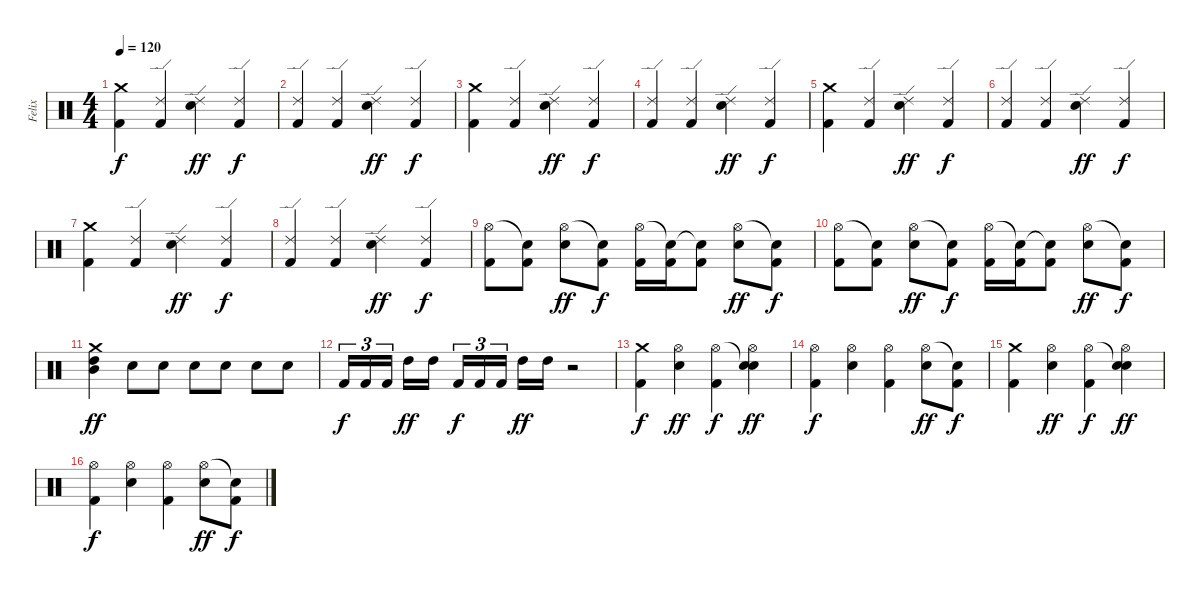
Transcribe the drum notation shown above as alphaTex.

\track ("Felix" "Felix") {instrument percussion}
\staff {score}
\articulation defaults
\ts (4 4)
\tempo 120
\clef neutral
\ks c
("Crash medium (hit)" "Kick (hit) 2").4{dy f} ("Ride (edge) 2" "Kick (hit) 2").4 ("Ride (edge) 2" "Electric Snare (hit)").4{dy ff} ("Ride (edge) 2" "Kick (hit) 2").4{dy f} |
("Ride (edge) 2" "Kick (hit) 2").4 ("Ride (edge) 2" "Kick (hit) 2").4 ("Ride (edge) 2" "Electric Snare (hit)").4{dy ff} ("Ride (edge) 2" "Kick (hit) 2").4{dy f} |
("Crash medium (hit)" "Kick (hit) 2").4 ("Ride (edge) 2" "Kick (hit) 2").4 ("Ride (edge) 2" "Electric Snare (hit)").4{dy ff} ("Ride (edge) 2" "Kick (hit) 2").4{dy f} |
("Ride (edge) 2" "Kick (hit) 2").4 ("Ride (edge) 2" "Kick (hit) 2").4 ("Ride (edge) 2" "Electric Snare (hit)").4{dy ff} ("Ride (edge) 2" "Kick (hit) 2").4{dy f} |
("Crash medium (hit)" "Kick (hit) 2").4 ("Ride (edge) 2" "Kick (hit) 2").4 ("Ride (edge) 2" "Electric Snare (hit)").4{dy ff} ("Ride (edge) 2" "Kick (hit) 2").4{dy f} |
("Ride (edge) 2" "Kick (hit) 2").4 ("Ride (edge) 2" "Kick (hit) 2").4 ("Ride (edge) 2" "Electric Snare (hit)").4{dy ff} ("Ride (edge) 2" "Kick (hit) 2").4{dy f} |
("Crash medium (hit)" "Kick (hit) 2").4 ("Ride (edge) 2" "Kick (hit) 2").4 ("Ride (edge) 2" "Electric Snare (hit)").4{dy ff} ("Ride (edge) 2" "Kick (hit) 2").4{dy f} |
("Ride (edge) 2" "Kick (hit) 2").4 ("Ride (edge) 2" "Kick (hit) 2").4 ("Ride (edge) 2" "Electric Snare (hit)").4{dy ff} ("Ride (edge) 2" "Kick (hit) 2").4{dy f} |
("Hi-Hat (open)" "Kick (hit) 2").8 ("Snare (hit)"{t} "Kick (hit) 2").8 ("Hi-Hat (open)" "Electric Snare (hit)").8{dy ff} ("Snare (hit)"{t} "Kick (hit) 2").8{dy f} ("Hi-Hat (open)" "Kick (hit) 2").16 ("Snare (hit)"{t} "Kick (hit) 2").16 ("Snare (hit)"{t} "Kick (hit) 2").8 ("Hi-Hat (open)" "Electric Snare (hit)").8{dy ff} ("Snare (hit)"{t} "Kick (hit) 2").8{dy f} |
("Hi-Hat (open)" "Kick (hit) 2").8 ("Snare (hit)"{t} "Kick (hit) 2").8 ("Hi-Hat (open)" "Electric Snare (hit)").8{dy ff} ("Snare (hit)"{t} "Kick (hit) 2").8{dy f} ("Hi-Hat (open)" "Kick (hit) 2").16 ("Snare (hit)"{t} "Kick (hit) 2").16 ("Snare (hit)"{t} "Kick (hit) 2").8 ("Hi-Hat (open)" "Electric Snare (hit)").8{dy ff} ("Snare (hit)"{t} "Kick (hit) 2").8{dy f} |
("Crash medium (hit)" "Mid Tom (hit)" "High Tom (hit)").4{dy ff} "Electric Snare (hit)".8 "Electric Snare (hit)".8 "Electric Snare (hit)".8 "Electric Snare (hit)".8 "Electric Snare (hit)".8 "Electric Snare (hit)".8 |
"Kick (hit) 2".16{tu (3 2) dy f} "Kick (hit) 2".16{tu (3 2)} "Kick (hit) 2".16{tu (3 2)} "High Tom (hit)".16{dy ff} "High Tom (hit)".16 "Kick (hit) 2".16{tu (3 2) dy f} "Kick (hit) 2".16{tu (3 2)} "Kick (hit) 2".16{tu (3 2)} "High Tom (hit)".16{dy ff} "High Tom (hit)".16 r.2 |
("Crash medium (hit)" "Kick (hit) 2").4{dy f} ("Hi-Hat (open)" "Electric Snare (hit)").4{dy ff} ("Hi-Hat (open)" "Kick (hit) 2").4{dy f} ("Snare (hit)"{t} "Hi-Hat (open)" "Electric Snare (hit)").4{dy ff} |
("Hi-Hat (open)" "Kick (hit) 2").4{dy f} ("Hi-Hat (open)" "Electric Snare (hit)").4 ("Hi-Hat (open)" "Kick (hit) 2").4 ("Hi-Hat (open)" "Electric Snare (hit)").8{dy ff} ("Snare (hit)"{t} "Kick (hit) 2").8{dy f} |
("Crash medium (hit)" "Kick (hit) 2").4 ("Hi-Hat (open)" "Electric Snare (hit)").4{dy ff} ("Hi-Hat (open)" "Kick (hit) 2").4{dy f} ("Snare (hit)"{t} "Hi-Hat (open)" "Electric Snare (hit)").4{dy ff} |
("Hi-Hat (open)" "Kick (hit) 2").4{dy f} ("Hi-Hat (open)" "Electric Snare (hit)").4 ("Hi-Hat (open)" "Kick (hit) 2").4 ("Hi-Hat (open)" "Electric Snare (hit)").8{dy ff} ("Snare (hit)"{t} "Kick (hit) 2").8{dy f}
